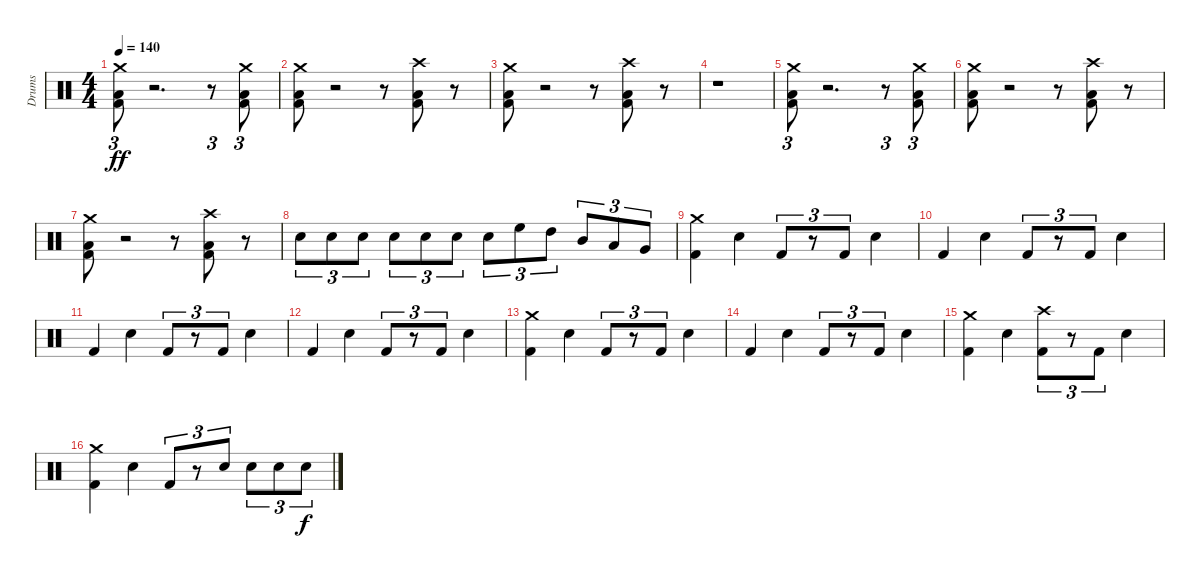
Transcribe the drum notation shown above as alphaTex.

\track ("Drums" "Drums") {instrument percussion}
\staff {score}
\articulation defaults
\ts (4 4)
\tempo 140
\clef neutral
\ks c
("Kick (hit) 2" "Low Floor Tom (hit)" "Crash medium (hit)").8{tu (3 2) dy ff} r.2{d} r.8{tu (3 2)} ("Kick (hit) 2" "Low Floor Tom (hit)" "Crash medium (hit)").8{tu (3 2)} |
("Kick (hit) 2" "Low Floor Tom (hit)" "Crash medium (hit)").8 r.2 r.8 ("Kick (hit) 2" "Low Floor Tom (hit)" "Crash high (hit)").8 r.8 |
("Kick (hit) 2" "Low Floor Tom (hit)" "Crash medium (hit)").8 r.2 r.8 ("Kick (hit) 2" "Low Floor Tom (hit)" "Crash high (hit)").8 r.8 |
r.1 |
("Kick (hit) 2" "Low Floor Tom (hit)" "Crash medium (hit)").8{tu (3 2)} r.2{d} r.8{tu (3 2)} ("Kick (hit) 2" "Low Floor Tom (hit)" "Crash medium (hit)").8{tu (3 2)} |
("Kick (hit) 2" "Low Floor Tom (hit)" "Crash medium (hit)").8 r.2 r.8 ("Kick (hit) 2" "Low Floor Tom (hit)" "Crash high (hit)").8 r.8 |
("Kick (hit) 2" "Low Floor Tom (hit)" "Crash medium (hit)").8 r.2 r.8 ("Kick (hit) 2" "Low Floor Tom (hit)" "Crash high (hit)").8 r.8 |
"Snare (hit) 2".8{tu (3 2)} "Snare (hit) 2".8{tu (3 2)} "Snare (hit) 2".8{tu (3 2)} "Snare (hit) 2".8{tu (3 2)} "Snare (hit) 2".8{tu (3 2)} "Snare (hit) 2".8{tu (3 2)} "Snare (hit) 2".8{tu (3 2)} "High Floor Tom (hit)".8{tu (3 2)} "High Tom (hit)".8{tu (3 2)} "Mid Tom (hit)".8{tu (3 2)} "Low Tom (hit)".8{tu (3 2)} "Very Low Tom (hit)".8{tu (3 2)} |
("Kick (hit) 2" "Crash medium (hit)").4 "Snare (hit) 2".4 "Kick (hit) 2".8{tu (3 2)} r.8{tu (3 2)} "Kick (hit) 2".8{tu (3 2)} "Snare (hit) 2".4 |
"Kick (hit) 2".4 "Snare (hit) 2".4 "Kick (hit) 2".8{tu (3 2)} r.8{tu (3 2)} "Kick (hit) 2".8{tu (3 2)} "Snare (hit) 2".4 |
"Kick (hit) 2".4 "Snare (hit) 2".4 "Kick (hit) 2".8{tu (3 2)} r.8{tu (3 2)} "Kick (hit) 2".8{tu (3 2)} "Snare (hit) 2".4 |
"Kick (hit) 2".4 "Snare (hit) 2".4 "Kick (hit) 2".8{tu (3 2)} r.8{tu (3 2)} "Kick (hit) 2".8{tu (3 2)} "Snare (hit) 2".4 |
("Kick (hit) 2" "Crash medium (hit)").4 "Snare (hit) 2".4 "Kick (hit) 2".8{tu (3 2)} r.8{tu (3 2)} "Kick (hit) 2".8{tu (3 2)} "Snare (hit) 2".4 |
"Kick (hit) 2".4 "Snare (hit) 2".4 "Kick (hit) 2".8{tu (3 2)} r.8{tu (3 2)} "Kick (hit) 2".8{tu (3 2)} "Snare (hit) 2".4 |
("Kick (hit) 2" "Crash medium (hit)").4 "Snare (hit) 2".4 ("Kick (hit) 2" "Crash high (hit)").8{tu (3 2)} r.8{tu (3 2)} "Kick (hit) 2".8{tu (3 2)} "Snare (hit) 2".4 |
("Kick (hit) 2" "Crash medium (hit)").4 "Snare (hit) 2".4 "Kick (hit) 2".8{tu (3 2)} r.8{tu (3 2)} "Snare (hit) 2".8{tu (3 2)} "Snare (hit) 2".8{tu (3 2)} "Snare (hit) 2".8{tu (3 2)} "Snare (hit) 2".8{tu (3 2) dy f}
